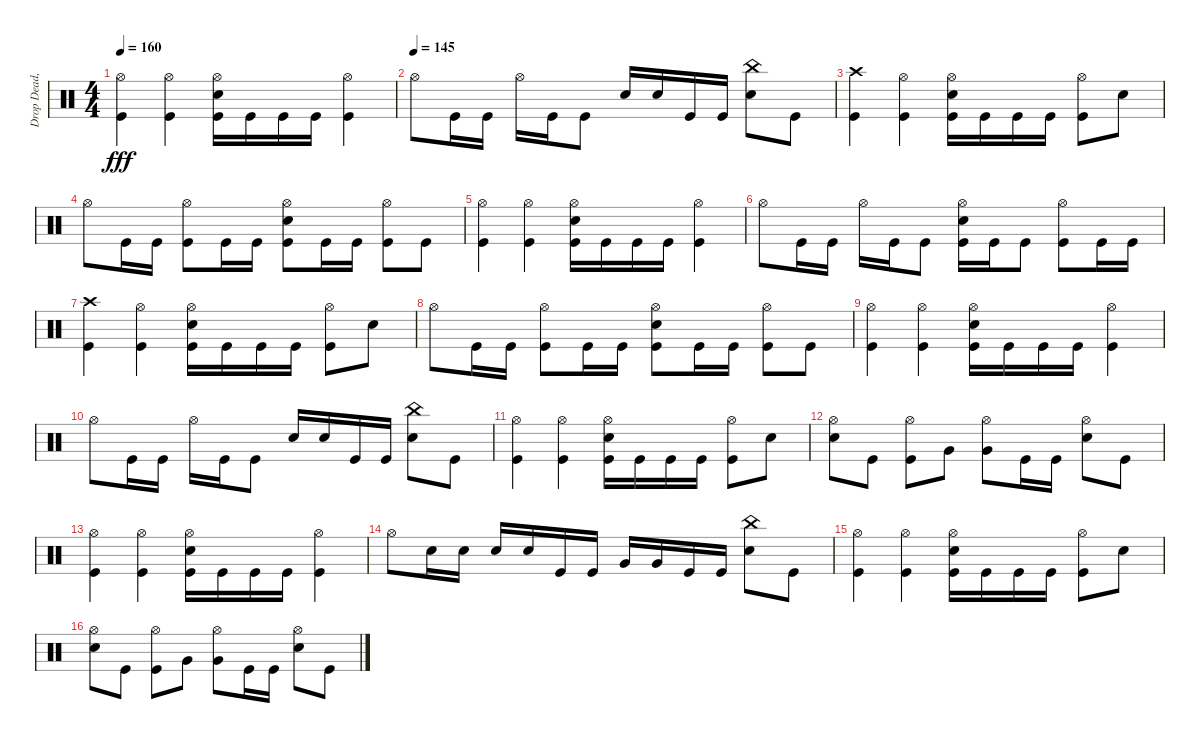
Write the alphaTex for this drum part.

\track ("Drop Dead, Johnny" "Drop Dead,") {instrument percussion}
\staff {score}
\articulation defaults
\ts (4 4)
\tempo 160
\clef neutral
\ks c
("Hi-Hat (open)" "Kick (hit)").4{dy fff} ("Hi-Hat (open)" "Kick (hit)").4 ("Hi-Hat (open)" "Electric Snare (hit)" "Kick (hit)").16 "Kick (hit)".16 "Kick (hit)".16 "Kick (hit)".16 ("Hi-Hat (open)" "Kick (hit)").4 |
\tempo (145)
"Hi-Hat (open)".8 "Kick (hit)".16 "Kick (hit)".16 "Hi-Hat (open)".16 "Kick (hit)".16 "Kick (hit)".8 "Electric Snare (hit)".16 "Electric Snare (hit)".16 "Kick (hit)".16 "Kick (hit)".16 ("China (hit)" "Electric Snare (hit)").8 "Kick (hit)".8 |
("Crash high (hit)" "Kick (hit)").4 ("Hi-Hat (open)" "Kick (hit)").4 ("Hi-Hat (open)" "Electric Snare (hit)" "Kick (hit)").16 "Kick (hit)".16 "Kick (hit)".16 "Kick (hit)".16 ("Hi-Hat (open)" "Kick (hit)").8 "Electric Snare (hit)".8 |
"Hi-Hat (open)".8 "Kick (hit)".16 "Kick (hit)".16 ("Hi-Hat (open)" "Kick (hit)").8 "Kick (hit)".16 "Kick (hit)".16 ("Hi-Hat (open)" "Electric Snare (hit)" "Kick (hit)").8 "Kick (hit)".16 "Kick (hit)".16 ("Hi-Hat (open)" "Kick (hit)").8 "Kick (hit)".8 |
("Hi-Hat (open)" "Kick (hit)").4 ("Hi-Hat (open)" "Kick (hit)").4 ("Hi-Hat (open)" "Electric Snare (hit)" "Kick (hit)").16 "Kick (hit)".16 "Kick (hit)".16 "Kick (hit)".16 ("Hi-Hat (open)" "Kick (hit)").4 |
"Hi-Hat (open)".8 "Kick (hit)".16 "Kick (hit)".16 "Hi-Hat (open)".16 "Kick (hit)".16 "Kick (hit)".8 ("Hi-Hat (open)" "Electric Snare (hit)" "Kick (hit)").16 "Kick (hit)".16 "Kick (hit)".8 ("Hi-Hat (open)" "Kick (hit)").8 "Kick (hit)".16 "Kick (hit)".16 |
("Crash high (hit)" "Kick (hit)").4 ("Hi-Hat (open)" "Kick (hit)").4 ("Hi-Hat (open)" "Electric Snare (hit)" "Kick (hit)").16 "Kick (hit)".16 "Kick (hit)".16 "Kick (hit)".16 ("Hi-Hat (open)" "Kick (hit)").8 "Electric Snare (hit)".8 |
"Hi-Hat (open)".8 "Kick (hit)".16 "Kick (hit)".16 ("Hi-Hat (open)" "Kick (hit)").8 "Kick (hit)".16 "Kick (hit)".16 ("Hi-Hat (open)" "Electric Snare (hit)" "Kick (hit)").8 "Kick (hit)".16 "Kick (hit)".16 ("Hi-Hat (open)" "Kick (hit)").8 "Kick (hit)".8 |
("Hi-Hat (open)" "Kick (hit)").4 ("Hi-Hat (open)" "Kick (hit)").4 ("Hi-Hat (open)" "Electric Snare (hit)" "Kick (hit)").16 "Kick (hit)".16 "Kick (hit)".16 "Kick (hit)".16 ("Hi-Hat (open)" "Kick (hit)").4 |
"Hi-Hat (open)".8 "Kick (hit)".16 "Kick (hit)".16 "Hi-Hat (open)".16 "Kick (hit)".16 "Kick (hit)".8 "Electric Snare (hit)".16 "Electric Snare (hit)".16 "Kick (hit)".16 "Kick (hit)".16 ("China (hit)" "Electric Snare (hit)").8 "Kick (hit)".8 |
("Hi-Hat (open)" "Kick (hit)").4 ("Hi-Hat (open)" "Kick (hit)").4 ("Hi-Hat (open)" "Electric Snare (hit)" "Kick (hit)").16 "Kick (hit)".16 "Kick (hit)".16 "Kick (hit)".16 ("Hi-Hat (open)" "Kick (hit)").8 "Electric Snare (hit)".8 |
("Hi-Hat (open)" "Electric Snare (hit)").8 "Kick (hit)".8 ("Hi-Hat (open)" "Kick (hit)").8 "Very Low Tom (hit)".8 ("Hi-Hat (open)" "Very Low Tom (hit)").8 "Kick (hit)".16 "Kick (hit)".16 ("Hi-Hat (open)" "Electric Snare (hit)").8 "Kick (hit)".8 |
("Hi-Hat (open)" "Kick (hit)").4 ("Hi-Hat (open)" "Kick (hit)").4 ("Hi-Hat (open)" "Electric Snare (hit)" "Kick (hit)").16 "Kick (hit)".16 "Kick (hit)".16 "Kick (hit)".16 ("Hi-Hat (open)" "Kick (hit)").4 |
"Hi-Hat (open)".8 "Electric Snare (hit)".16 "Electric Snare (hit)".16 "Electric Snare (hit)".16 "Electric Snare (hit)".16 "Kick (hit)".16 "Kick (hit)".16 "Very Low Tom (hit)".16 "Very Low Tom (hit)".16 "Kick (hit)".16 "Kick (hit)".16 ("China (hit)" "Electric Snare (hit)").8 "Kick (hit)".8 |
("Hi-Hat (open)" "Kick (hit)").4 ("Hi-Hat (open)" "Kick (hit)").4 ("Hi-Hat (open)" "Electric Snare (hit)" "Kick (hit)").16 "Kick (hit)".16 "Kick (hit)".16 "Kick (hit)".16 ("Hi-Hat (open)" "Kick (hit)").8 "Electric Snare (hit)".8 |
("Hi-Hat (open)" "Electric Snare (hit)").8 "Kick (hit)".8 ("Hi-Hat (open)" "Kick (hit)").8 "Very Low Tom (hit)".8 ("Hi-Hat (open)" "Very Low Tom (hit)").8 "Kick (hit)".16 "Kick (hit)".16 ("Hi-Hat (open)" "Electric Snare (hit)").8 "Kick (hit)".8
